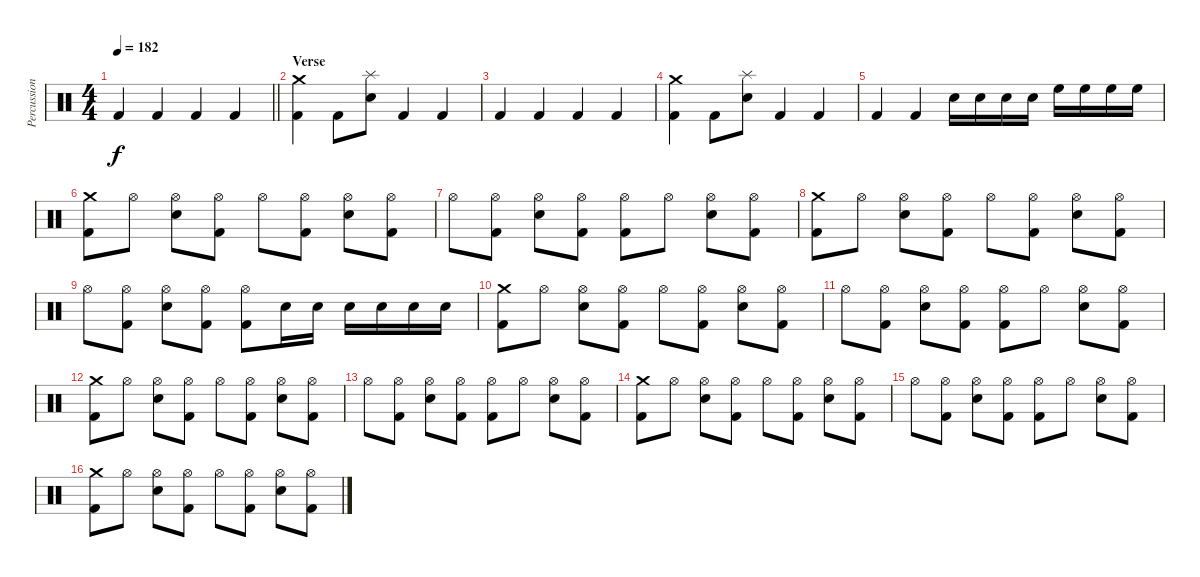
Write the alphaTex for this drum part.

\track ("Percussion" "Percussion") {instrument percussion}
\staff {score}
\articulation defaults
\ts (4 4)
\tempo 182
\clef neutral
\barLineRight lightlight
\ks c "Kick (hit) 2".4{dy f} "Kick (hit) 2".4 "Kick (hit) 2".4 "Kick (hit) 2".4
|
\section ("" "Verse")
("Crash medium (hit)" "Kick (hit) 2").4 "Kick (hit) 2".8 ("Splash (hit)" "Electric Snare (hit)").8 "Kick (hit) 2".4 "Kick (hit) 2".4 |
"Kick (hit) 2".4 "Kick (hit) 2".4 "Kick (hit) 2".4 "Kick (hit) 2".4 |
("Crash medium (hit)" "Kick (hit) 2").4 "Kick (hit) 2".8 ("Splash (hit)" "Electric Snare (hit)").8 "Kick (hit) 2".4 "Kick (hit) 2".4 |
"Kick (hit) 2".4 "Kick (hit) 2".4 "Electric Snare (hit)".16 "Electric Snare (hit)".16 "Electric Snare (hit)".16 "Electric Snare (hit)".16 "High Floor Tom (hit)".16 "High Floor Tom (hit)".16 "High Floor Tom (hit)".16 "High Floor Tom (hit)".16 |
("Crash medium (hit)" "Kick (hit) 2").8 "Hi-Hat (open)".8 ("Hi-Hat (open)" "Electric Snare (hit)").8 ("Hi-Hat (open)" "Kick (hit) 2").8 "Hi-Hat (open)".8 ("Hi-Hat (open)" "Kick (hit) 2").8 ("Hi-Hat (open)" "Electric Snare (hit)").8 ("Hi-Hat (open)" "Kick (hit) 2").8 |
"Hi-Hat (open)".8 ("Hi-Hat (open)" "Kick (hit) 2").8 ("Hi-Hat (open)" "Electric Snare (hit)").8 ("Hi-Hat (open)" "Kick (hit) 2").8 ("Hi-Hat (open)" "Kick (hit) 2").8 "Hi-Hat (open)".8 ("Hi-Hat (open)" "Electric Snare (hit)").8 ("Hi-Hat (open)" "Kick (hit) 2").8 |
("Crash medium (hit)" "Kick (hit) 2").8 "Hi-Hat (open)".8 ("Hi-Hat (open)" "Electric Snare (hit)").8 ("Hi-Hat (open)" "Kick (hit) 2").8 "Hi-Hat (open)".8 ("Hi-Hat (open)" "Kick (hit) 2").8 ("Hi-Hat (open)" "Electric Snare (hit)").8 ("Hi-Hat (open)" "Kick (hit) 2").8 |
"Hi-Hat (open)".8 ("Hi-Hat (open)" "Kick (hit) 2").8 ("Hi-Hat (open)" "Electric Snare (hit)").8 ("Hi-Hat (open)" "Kick (hit) 2").8 ("Hi-Hat (open)" "Kick (hit) 2").8 "Electric Snare (hit)".16 "Electric Snare (hit)".16 "Electric Snare (hit)".16 "Electric Snare (hit)".16 "Electric Snare (hit)".16 "Electric Snare (hit)".16 |
("Crash medium (hit)" "Kick (hit) 2").8 "Hi-Hat (open)".8 ("Hi-Hat (open)" "Electric Snare (hit)").8 ("Hi-Hat (open)" "Kick (hit) 2").8 "Hi-Hat (open)".8 ("Hi-Hat (open)" "Kick (hit) 2").8 ("Hi-Hat (open)" "Electric Snare (hit)").8 ("Hi-Hat (open)" "Kick (hit) 2").8 |
"Hi-Hat (open)".8 ("Hi-Hat (open)" "Kick (hit) 2").8 ("Hi-Hat (open)" "Electric Snare (hit)").8 ("Hi-Hat (open)" "Kick (hit) 2").8 ("Hi-Hat (open)" "Kick (hit) 2").8 "Hi-Hat (open)".8 ("Hi-Hat (open)" "Electric Snare (hit)").8 ("Hi-Hat (open)" "Kick (hit) 2").8 |
("Crash medium (hit)" "Kick (hit) 2").8 "Hi-Hat (open)".8 ("Hi-Hat (open)" "Electric Snare (hit)").8 ("Hi-Hat (open)" "Kick (hit) 2").8 "Hi-Hat (open)".8 ("Hi-Hat (open)" "Kick (hit) 2").8 ("Hi-Hat (open)" "Electric Snare (hit)").8 ("Hi-Hat (open)" "Kick (hit) 2").8 |
"Hi-Hat (open)".8 ("Hi-Hat (open)" "Kick (hit) 2").8 ("Hi-Hat (open)" "Electric Snare (hit)").8 ("Hi-Hat (open)" "Kick (hit) 2").8 ("Hi-Hat (open)" "Kick (hit) 2").8 "Hi-Hat (open)".8 ("Hi-Hat (open)" "Electric Snare (hit)").8 ("Hi-Hat (open)" "Kick (hit) 2").8 |
("Crash medium (hit)" "Kick (hit) 2").8 "Hi-Hat (open)".8 ("Hi-Hat (open)" "Electric Snare (hit)").8 ("Hi-Hat (open)" "Kick (hit) 2").8 "Hi-Hat (open)".8 ("Hi-Hat (open)" "Kick (hit) 2").8 ("Hi-Hat (open)" "Electric Snare (hit)").8 ("Hi-Hat (open)" "Kick (hit) 2").8 |
"Hi-Hat (open)".8 ("Hi-Hat (open)" "Kick (hit) 2").8 ("Hi-Hat (open)" "Electric Snare (hit)").8 ("Hi-Hat (open)" "Kick (hit) 2").8 ("Hi-Hat (open)" "Kick (hit) 2").8 "Hi-Hat (open)".8 ("Hi-Hat (open)" "Electric Snare (hit)").8 ("Hi-Hat (open)" "Kick (hit) 2").8 |
("Crash medium (hit)" "Kick (hit) 2").8 "Hi-Hat (open)".8 ("Hi-Hat (open)" "Electric Snare (hit)").8 ("Hi-Hat (open)" "Kick (hit) 2").8 "Hi-Hat (open)".8 ("Hi-Hat (open)" "Kick (hit) 2").8 ("Hi-Hat (open)" "Electric Snare (hit)").8 ("Hi-Hat (open)" "Kick (hit) 2").8
